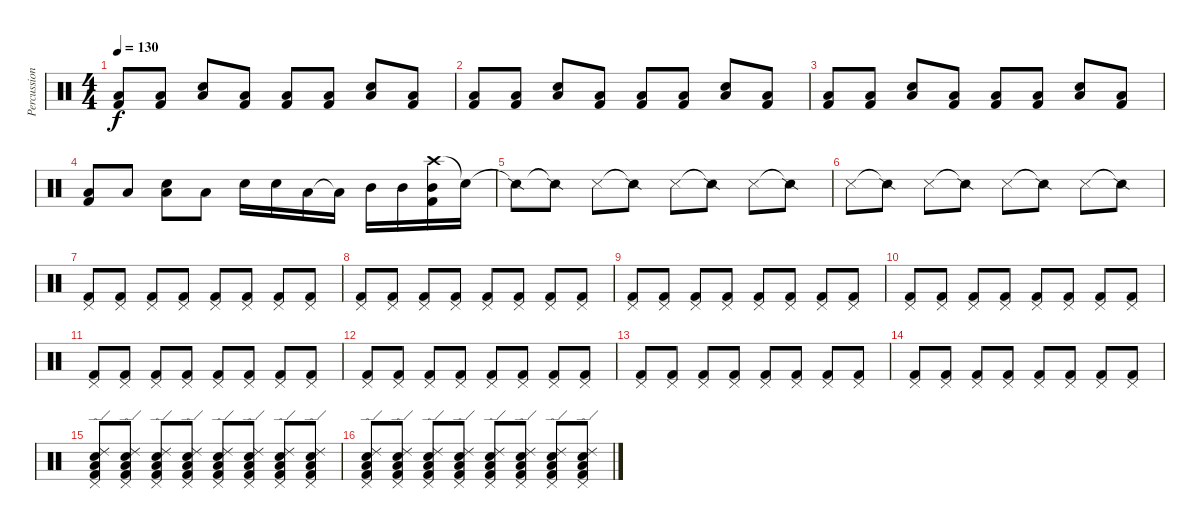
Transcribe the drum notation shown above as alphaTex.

\track ("Percussion" "Percussion") {instrument percussion}
\staff {score}
\articulation defaults
\ts (4 4)
\tempo 130
\clef neutral
\ks c
("Low Floor Tom (hit)" "Kick (hit) 2").8{dy f} ("Low Floor Tom (hit)" "Kick (hit) 2").8 ("Snare (hit) 2" "Low Floor Tom (hit)").8 ("Low Floor Tom (hit)" "Kick (hit) 2").8 ("Low Floor Tom (hit)" "Kick (hit) 2").8 ("Low Floor Tom (hit)" "Kick (hit) 2").8 ("Snare (hit) 2" "Low Floor Tom (hit)").8 ("Low Floor Tom (hit)" "Kick (hit) 2").8 |
("Low Floor Tom (hit)" "Kick (hit) 2").8 ("Low Floor Tom (hit)" "Kick (hit) 2").8 ("Snare (hit) 2" "Low Floor Tom (hit)").8 ("Low Floor Tom (hit)" "Kick (hit) 2").8 ("Low Floor Tom (hit)" "Kick (hit) 2").8 ("Low Floor Tom (hit)" "Kick (hit) 2").8 ("Snare (hit) 2" "Low Floor Tom (hit)").8 ("Low Floor Tom (hit)" "Kick (hit) 2").8 |
("Low Floor Tom (hit)" "Kick (hit) 2").8 ("Low Floor Tom (hit)" "Kick (hit) 2").8 ("Snare (hit) 2" "Low Floor Tom (hit)").8 ("Low Floor Tom (hit)" "Kick (hit) 2").8 ("Low Floor Tom (hit)" "Kick (hit) 2").8 ("Low Floor Tom (hit)" "Kick (hit) 2").8 ("Snare (hit) 2" "Low Floor Tom (hit)").8 ("Low Floor Tom (hit)" "Kick (hit) 2").8 |
("Low Floor Tom (hit)" "Kick (hit) 2").8 "Low Floor Tom (hit)".8 ("Snare (hit) 2" "Low Floor Tom (hit)").8 "Low Floor Tom (hit)".8 "Snare (hit) 2".16 "Snare (hit) 2".16 "Low Floor Tom (hit)".16 "Low Floor Tom (hit)"{t}.16 "Mid Tom (hit)".16 "Mid Tom (hit)".16 ("Crash high (hit)" "Mid Tom (hit)" "Kick (hit) 2").16 "Snare (hit)"{t}.16 |
"Snare (side stick) 2"{t}.8 "Snare (side stick) 2"{t}.8 "Snare (side stick) 3".8 "Snare (side stick) 2"{t}.8 "Snare (side stick) 3".8 "Snare (side stick) 2"{t}.8 "Snare (side stick) 3".8 "Snare (side stick) 2"{t}.8 |
"Snare (side stick) 3".8 "Snare (side stick) 2"{t}.8 "Snare (side stick) 3".8 "Snare (side stick) 2"{t}.8 "Snare (side stick) 3".8 "Snare (side stick) 2"{t}.8 "Snare (side stick) 3".8 "Snare (side stick) 2"{t}.8 |
("Pedal Hi-Hat (hit)" "Kick (hit) 2").8 ("Pedal Hi-Hat (hit)" "Kick (hit) 2").8 ("Pedal Hi-Hat (hit)" "Kick (hit) 2").8 ("Pedal Hi-Hat (hit)" "Kick (hit) 2").8 ("Pedal Hi-Hat (hit)" "Kick (hit) 2").8 ("Pedal Hi-Hat (hit)" "Kick (hit) 2").8 ("Pedal Hi-Hat (hit)" "Kick (hit) 2").8 ("Pedal Hi-Hat (hit)" "Kick (hit) 2").8 |
("Pedal Hi-Hat (hit)" "Kick (hit) 2").8 ("Pedal Hi-Hat (hit)" "Kick (hit) 2").8 ("Pedal Hi-Hat (hit)" "Kick (hit) 2").8 ("Pedal Hi-Hat (hit)" "Kick (hit) 2").8 ("Pedal Hi-Hat (hit)" "Kick (hit) 2").8 ("Pedal Hi-Hat (hit)" "Kick (hit) 2").8 ("Pedal Hi-Hat (hit)" "Kick (hit) 2").8 ("Pedal Hi-Hat (hit)" "Kick (hit) 2").8 |
("Pedal Hi-Hat (hit)" "Kick (hit) 2").8 ("Pedal Hi-Hat (hit)" "Kick (hit) 2").8 ("Pedal Hi-Hat (hit)" "Kick (hit) 2").8 ("Pedal Hi-Hat (hit)" "Kick (hit) 2").8 ("Pedal Hi-Hat (hit)" "Kick (hit) 2").8 ("Pedal Hi-Hat (hit)" "Kick (hit) 2").8 ("Pedal Hi-Hat (hit)" "Kick (hit) 2").8 ("Pedal Hi-Hat (hit)" "Kick (hit) 2").8 |
("Pedal Hi-Hat (hit)" "Kick (hit) 2").8 ("Pedal Hi-Hat (hit)" "Kick (hit) 2").8 ("Pedal Hi-Hat (hit)" "Kick (hit) 2").8 ("Pedal Hi-Hat (hit)" "Kick (hit) 2").8 ("Pedal Hi-Hat (hit)" "Kick (hit) 2").8 ("Pedal Hi-Hat (hit)" "Kick (hit) 2").8 ("Pedal Hi-Hat (hit)" "Kick (hit) 2").8 ("Pedal Hi-Hat (hit)" "Kick (hit) 2").8 |
("Pedal Hi-Hat (hit)" "Kick (hit) 2").8 ("Pedal Hi-Hat (hit)" "Kick (hit) 2").8 ("Pedal Hi-Hat (hit)" "Kick (hit) 2").8 ("Pedal Hi-Hat (hit)" "Kick (hit) 2").8 ("Pedal Hi-Hat (hit)" "Kick (hit) 2").8 ("Pedal Hi-Hat (hit)" "Kick (hit) 2").8 ("Pedal Hi-Hat (hit)" "Kick (hit) 2").8 ("Pedal Hi-Hat (hit)" "Kick (hit) 2").8 |
("Pedal Hi-Hat (hit)" "Kick (hit) 2").8 ("Pedal Hi-Hat (hit)" "Kick (hit) 2").8 ("Pedal Hi-Hat (hit)" "Kick (hit) 2").8 ("Pedal Hi-Hat (hit)" "Kick (hit) 2").8 ("Pedal Hi-Hat (hit)" "Kick (hit) 2").8 ("Pedal Hi-Hat (hit)" "Kick (hit) 2").8 ("Pedal Hi-Hat (hit)" "Kick (hit) 2").8 ("Pedal Hi-Hat (hit)" "Kick (hit) 2").8 |
("Pedal Hi-Hat (hit)" "Kick (hit) 2").8 ("Pedal Hi-Hat (hit)" "Kick (hit) 2").8 ("Pedal Hi-Hat (hit)" "Kick (hit) 2").8 ("Pedal Hi-Hat (hit)" "Kick (hit) 2").8 ("Pedal Hi-Hat (hit)" "Kick (hit) 2").8 ("Pedal Hi-Hat (hit)" "Kick (hit) 2").8 ("Pedal Hi-Hat (hit)" "Kick (hit) 2").8 ("Pedal Hi-Hat (hit)" "Kick (hit) 2").8 |
("Pedal Hi-Hat (hit)" "Kick (hit) 2").8 ("Pedal Hi-Hat (hit)" "Kick (hit) 2").8 ("Pedal Hi-Hat (hit)" "Kick (hit) 2").8 ("Pedal Hi-Hat (hit)" "Kick (hit) 2").8 ("Pedal Hi-Hat (hit)" "Kick (hit) 2").8 ("Pedal Hi-Hat (hit)" "Kick (hit) 2").8 ("Pedal Hi-Hat (hit)" "Kick (hit) 2").8 ("Pedal Hi-Hat (hit)" "Kick (hit) 2").8 |
("Low Tom (hit)" "Snare (hit) 2" "Pedal Hi-Hat (hit)" "Kick (hit) 2" "Ride (edge) 2").8 ("Low Tom (hit)" "Snare (hit) 2" "Pedal Hi-Hat (hit)" "Kick (hit) 2" "Ride (edge) 2").8 ("Low Tom (hit)" "Snare (hit) 2" "Pedal Hi-Hat (hit)" "Kick (hit) 2" "Ride (edge) 2").8 ("Low Tom (hit)" "Snare (hit) 2" "Pedal Hi-Hat (hit)" "Kick (hit) 2" "Ride (edge) 2").8 ("Low Tom (hit)" "Snare (hit) 2" "Pedal Hi-Hat (hit)" "Kick (hit) 2" "Ride (edge) 2").8 ("Low Tom (hit)" "Snare (hit) 2" "Pedal Hi-Hat (hit)" "Kick (hit) 2" "Ride (edge) 2").8 ("Low Tom (hit)" "Snare (hit) 2" "Pedal Hi-Hat (hit)" "Kick (hit) 2" "Ride (edge) 2").8 ("Low Tom (hit)" "Snare (hit) 2" "Pedal Hi-Hat (hit)" "Kick (hit) 2" "Ride (edge) 2").8 |
("Low Tom (hit)" "Snare (hit) 2" "Pedal Hi-Hat (hit)" "Kick (hit) 2" "Ride (edge) 2").8 ("Low Tom (hit)" "Snare (hit) 2" "Pedal Hi-Hat (hit)" "Kick (hit) 2" "Ride (edge) 2").8 ("Low Tom (hit)" "Snare (hit) 2" "Pedal Hi-Hat (hit)" "Kick (hit) 2" "Ride (edge) 2").8 ("Low Tom (hit)" "Snare (hit) 2" "Pedal Hi-Hat (hit)" "Kick (hit) 2" "Ride (edge) 2").8 ("Low Tom (hit)" "Snare (hit) 2" "Pedal Hi-Hat (hit)" "Kick (hit) 2" "Ride (edge) 2").8 ("Low Tom (hit)" "Snare (hit) 2" "Pedal Hi-Hat (hit)" "Kick (hit) 2" "Ride (edge) 2").8 ("Low Tom (hit)" "Snare (hit) 2" "Pedal Hi-Hat (hit)" "Kick (hit) 2" "Ride (edge) 2").8 ("Low Tom (hit)" "Snare (hit) 2" "Pedal Hi-Hat (hit)" "Kick (hit) 2" "Ride (edge) 2").8
